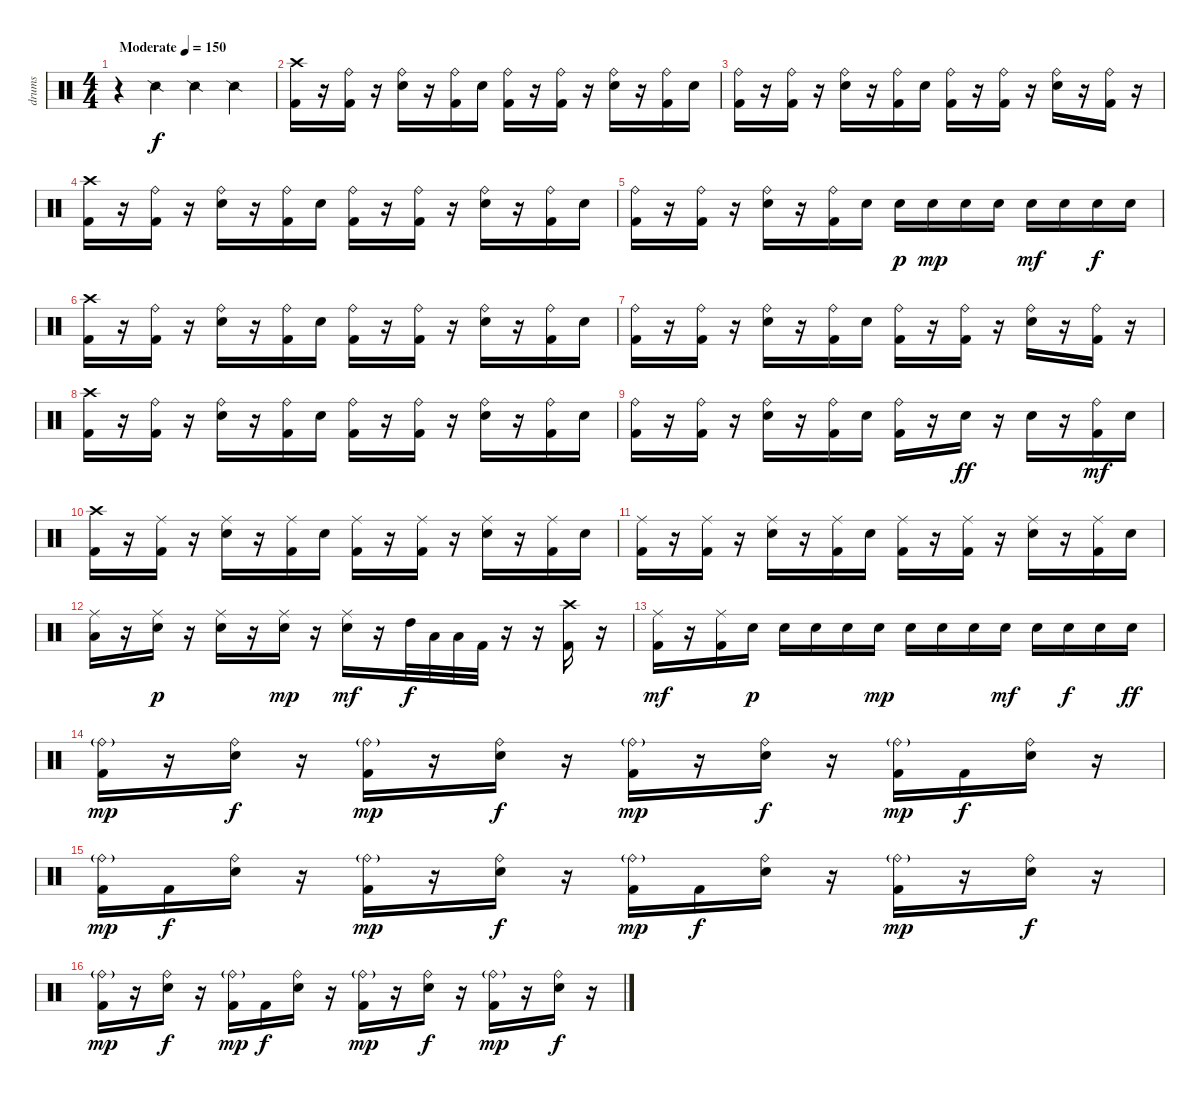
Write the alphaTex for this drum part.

\track ("drums" "drums") {instrument percussion}
\staff {score}
\articulation defaults
\ts (4 4)
\tempo (150 "Moderate")
\clef neutral
\ks c
r.4{dy f} "Snare (side stick) 2".4 "Snare (side stick) 2".4 "Snare (side stick) 2".4 |
("Crash high (hit)" "Kick (hit) 2").16 r.16 ("Ride (bell)" "Kick (hit) 2").16 r.16 ("Ride (bell)" "Electric Snare (hit)").16 r.16 ("Ride (bell)" "Kick (hit) 2").16 "Electric Snare (hit)".16 ("Ride (bell)" "Kick (hit) 2").16 r.16 ("Ride (bell)" "Kick (hit) 2").16 r.16 ("Ride (bell)" "Electric Snare (hit)").16 r.16 ("Ride (bell)" "Kick (hit) 2").16 "Electric Snare (hit)".16 |
("Ride (bell)" "Kick (hit) 2").16 r.16 ("Ride (bell)" "Kick (hit) 2").16 r.16 ("Ride (bell)" "Electric Snare (hit)").16 r.16 ("Ride (bell)" "Kick (hit) 2").16 "Electric Snare (hit)".16 ("Ride (bell)" "Kick (hit) 2").16 r.16 ("Ride (bell)" "Kick (hit) 2").16 r.16 ("Ride (bell)" "Electric Snare (hit)").16 r.16 ("Ride (bell)" "Kick (hit) 2").16 r.16 |
("Crash high (hit)" "Kick (hit) 2").16 r.16 ("Ride (bell)" "Kick (hit) 2").16 r.16 ("Ride (bell)" "Electric Snare (hit)").16 r.16 ("Ride (bell)" "Kick (hit) 2").16 "Electric Snare (hit)".16 ("Ride (bell)" "Kick (hit) 2").16 r.16 ("Ride (bell)" "Kick (hit) 2").16 r.16 ("Ride (bell)" "Electric Snare (hit)").16 r.16 ("Ride (bell)" "Kick (hit) 2").16 "Electric Snare (hit)".16 |
("Ride (bell)" "Kick (hit) 2").16 r.16 ("Ride (bell)" "Kick (hit) 2").16 r.16 ("Ride (bell)" "Electric Snare (hit)").16 r.16 ("Ride (bell)" "Kick (hit) 2").16 "Electric Snare (hit)".16 "Electric Snare (hit)".16{dy p} "Electric Snare (hit)".16{dy mp} "Electric Snare (hit)".16 "Electric Snare (hit)".16 "Electric Snare (hit)".16{dy mf} "Electric Snare (hit)".16 "Electric Snare (hit)".16{dy f} "Electric Snare (hit)".16 |
("Crash high (hit)" "Kick (hit) 2").16 r.16 ("Ride (bell)" "Kick (hit) 2").16 r.16 ("Ride (bell)" "Electric Snare (hit)").16 r.16 ("Ride (bell)" "Kick (hit) 2").16 "Electric Snare (hit)".16 ("Ride (bell)" "Kick (hit) 2").16 r.16 ("Ride (bell)" "Kick (hit) 2").16 r.16 ("Ride (bell)" "Electric Snare (hit)").16 r.16 ("Ride (bell)" "Kick (hit) 2").16 "Electric Snare (hit)".16 |
("Ride (bell)" "Kick (hit) 2").16 r.16 ("Ride (bell)" "Kick (hit) 2").16 r.16 ("Ride (bell)" "Electric Snare (hit)").16 r.16 ("Ride (bell)" "Kick (hit) 2").16 "Electric Snare (hit)".16 ("Ride (bell)" "Kick (hit) 2").16 r.16 ("Ride (bell)" "Kick (hit) 2").16 r.16 ("Ride (bell)" "Electric Snare (hit)").16 r.16 ("Ride (bell)" "Kick (hit) 2").16 r.16 |
("Crash high (hit)" "Kick (hit) 2").16 r.16 ("Ride (bell)" "Kick (hit) 2").16 r.16 ("Ride (bell)" "Electric Snare (hit)").16 r.16 ("Ride (bell)" "Kick (hit) 2").16 "Electric Snare (hit)".16 ("Ride (bell)" "Kick (hit) 2").16 r.16 ("Ride (bell)" "Kick (hit) 2").16 r.16 ("Ride (bell)" "Electric Snare (hit)").16 r.16 ("Ride (bell)" "Kick (hit) 2").16 "Electric Snare (hit)".16 |
("Ride (bell)" "Kick (hit) 2").16 r.16 ("Ride (bell)" "Kick (hit) 2").16 r.16 ("Ride (bell)" "Electric Snare (hit)").16 r.16 ("Ride (bell)" "Kick (hit) 2").16 "Electric Snare (hit)".16 ("Ride (bell)" "Kick (hit) 2").16 r.16 "Electric Snare (hit)".16{dy ff} r.16 "Electric Snare (hit)".16 r.16 ("Ride (bell)" "Kick (hit) 2").16{dy mf} "Electric Snare (hit)".16 |
("Crash high (hit)" "Kick (hit) 2").16 r.16 ("Ride (middle)" "Kick (hit) 2").16 r.16 ("Ride (middle)" "Electric Snare (hit)").16 r.16 ("Ride (middle)" "Kick (hit) 2").16 "Electric Snare (hit)".16 ("Ride (middle)" "Kick (hit) 2").16 r.16 ("Ride (middle)" "Kick (hit) 2").16 r.16 ("Ride (middle)" "Electric Snare (hit)").16 r.16 ("Ride (middle)" "Kick (hit) 2").16 "Electric Snare (hit)".16 |
("Ride (middle)" "Kick (hit) 2").16 r.16 ("Ride (middle)" "Kick (hit) 2").16 r.16 ("Ride (middle)" "Electric Snare (hit)").16 r.16 ("Ride (middle)" "Kick (hit) 2").16 "Electric Snare (hit)".16 ("Ride (middle)" "Kick (hit) 2").16 r.16 ("Ride (middle)" "Kick (hit) 2").16 r.16 ("Ride (middle)" "Electric Snare (hit)").16 r.16 ("Ride (middle)" "Kick (hit) 2").16 "Electric Snare (hit)".16 |
("Ride (middle)" "Low Floor Tom (hit)").16 r.16 ("Ride (middle)" "Electric Snare (hit)").16{dy p} r.16 ("Ride (middle)" "Electric Snare (hit)").16 r.16 ("Ride (middle)" "Electric Snare (hit)").16{dy mp} r.16 ("Ride (middle)" "Electric Snare (hit)").16{dy mf} r.16 "High Tom (hit)".32{dy f} "Low Tom (hit)".32 "Low Floor Tom (hit)".32 "Kick (hit) 2".32 r.16 r.16 ("Crash high (hit)" "Kick (hit) 2").16 r.16 |
("Ride (middle)" "Kick (hit) 2").16{dy mf} r.16 ("Ride (middle)" "Kick (hit) 2").16 "Electric Snare (hit)".16{dy p} "Electric Snare (hit)".16 "Electric Snare (hit)".16 "Electric Snare (hit)".16 "Electric Snare (hit)".16{dy mp} "Electric Snare (hit)".16 "Electric Snare (hit)".16 "Electric Snare (hit)".16 "Electric Snare (hit)".16{dy mf} "Electric Snare (hit)".16 "Electric Snare (hit)".16{dy f} "Electric Snare (hit)".16 "Electric Snare (hit)".16{dy ff} |
("Ride (bell)"{g} "Kick (hit) 2").16{dy mp} r.16 ("Ride (bell)" "Electric Snare (hit)").16{dy f} r.16 ("Ride (bell)"{g} "Kick (hit) 2").16{dy mp} r.16 ("Ride (bell)" "Electric Snare (hit)").16{dy f} r.16 ("Ride (bell)"{g} "Kick (hit) 2").16{dy mp} r.16 ("Ride (bell)" "Electric Snare (hit)").16{dy f} r.16 ("Ride (bell)"{g} "Kick (hit) 2").16{dy mp} "Kick (hit) 2".16{dy f} ("Ride (bell)" "Electric Snare (hit)").16 r.16 |
("Ride (bell)"{g} "Kick (hit) 2").16{dy mp} "Kick (hit) 2".16{dy f} ("Ride (bell)" "Electric Snare (hit)").16 r.16 ("Ride (bell)"{g} "Kick (hit) 2").16{dy mp} r.16 ("Ride (bell)" "Electric Snare (hit)").16{dy f} r.16 ("Ride (bell)"{g} "Kick (hit) 2").16{dy mp} "Kick (hit) 2".16{dy f} ("Ride (bell)" "Electric Snare (hit)").16 r.16 ("Ride (bell)"{g} "Kick (hit) 2").16{dy mp} r.16 ("Ride (bell)" "Electric Snare (hit)").16{dy f} r.16 |
("Ride (bell)"{g} "Kick (hit) 2").16{dy mp} r.16 ("Ride (bell)" "Electric Snare (hit)").16{dy f} r.16 ("Ride (bell)"{g} "Kick (hit) 2").16{dy mp} "Kick (hit) 2".16{dy f} ("Ride (bell)" "Electric Snare (hit)").16 r.16 ("Ride (bell)"{g} "Kick (hit) 2").16{dy mp} r.16 ("Ride (bell)" "Electric Snare (hit)").16{dy f} r.16 ("Ride (bell)"{g} "Kick (hit) 2").16{dy mp} r.16 ("Ride (bell)" "Electric Snare (hit)").16{dy f} r.16
